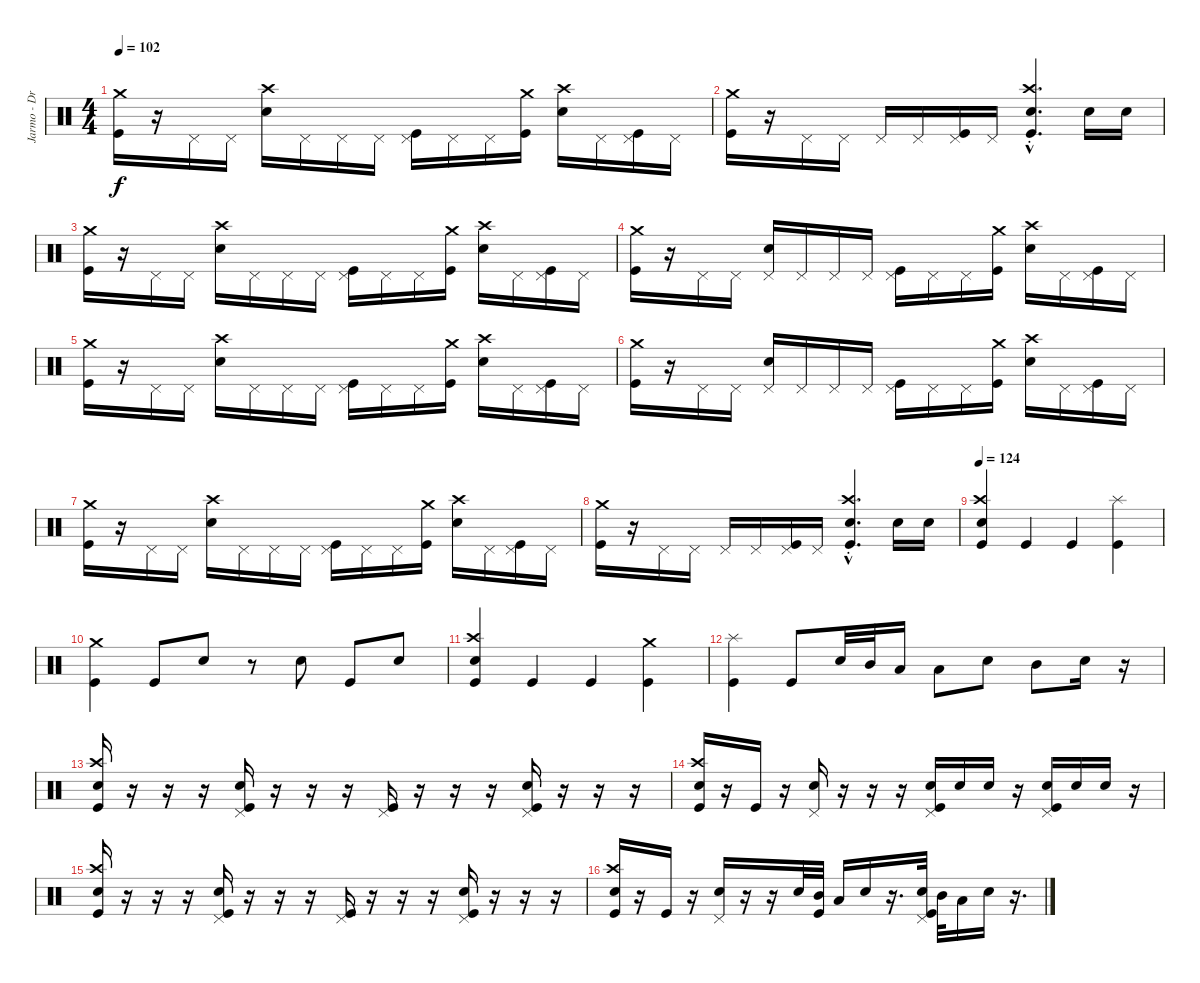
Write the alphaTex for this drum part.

\track ("Jarmo - Drums" "Jarmo - Dr") {instrument percussion}
\staff {score}
\articulation defaults
\ts (4 4)
\tempo 102
\clef neutral
\ks c
("Crash medium (hit)" "Kick (hit)").16{dy f} r.16 "Pedal Hi-Hat (hit)".16 "Pedal Hi-Hat (hit)".16 ("Crash high (hit)" "Electric Snare (hit)").16 "Pedal Hi-Hat (hit)".16 "Pedal Hi-Hat (hit)".16 "Pedal Hi-Hat (hit)".16 ("Pedal Hi-Hat (hit)" "Kick (hit)").16 "Pedal Hi-Hat (hit)".16 "Pedal Hi-Hat (hit)".16 ("Crash medium (hit)" "Kick (hit)").16 ("Crash high (hit)" "Electric Snare (hit)").16 "Pedal Hi-Hat (hit)".16 ("Pedal Hi-Hat (hit)" "Kick (hit)").16 "Pedal Hi-Hat (hit)".16 |
("Crash medium (hit)" "Kick (hit)").16 r.16 "Pedal Hi-Hat (hit)".16 "Pedal Hi-Hat (hit)".16 "Pedal Hi-Hat (hit)".16 "Pedal Hi-Hat (hit)".16 ("Pedal Hi-Hat (hit)" "Kick (hit)").16 "Pedal Hi-Hat (hit)".16 ("Crash high (hit)"{hac st} "Electric Snare (hit)"{hac} "Kick (hit)"{hac}).4{d} "Electric Snare (hit)".16 "Electric Snare (hit)".16 |
("Crash medium (hit)" "Kick (hit)").16 r.16 "Pedal Hi-Hat (hit)".16 "Pedal Hi-Hat (hit)".16 ("Crash high (hit)" "Electric Snare (hit)").16 "Pedal Hi-Hat (hit)".16 "Pedal Hi-Hat (hit)".16 "Pedal Hi-Hat (hit)".16 ("Pedal Hi-Hat (hit)" "Kick (hit)").16 "Pedal Hi-Hat (hit)".16 "Pedal Hi-Hat (hit)".16 ("Crash medium (hit)" "Kick (hit)").16 ("Crash high (hit)" "Electric Snare (hit)").16 "Pedal Hi-Hat (hit)".16 ("Pedal Hi-Hat (hit)" "Kick (hit)").16 "Pedal Hi-Hat (hit)".16 |
("Crash medium (hit)" "Kick (hit)").16 r.16 "Pedal Hi-Hat (hit)".16 "Pedal Hi-Hat (hit)".16 ("Pedal Hi-Hat (hit)" "Electric Snare (hit)").16 "Pedal Hi-Hat (hit)".16 "Pedal Hi-Hat (hit)".16 "Pedal Hi-Hat (hit)".16 ("Pedal Hi-Hat (hit)" "Kick (hit)").16 "Pedal Hi-Hat (hit)".16 "Pedal Hi-Hat (hit)".16 ("Crash medium (hit)" "Kick (hit)").16 ("Crash high (hit)" "Electric Snare (hit)").16 "Pedal Hi-Hat (hit)".16 ("Pedal Hi-Hat (hit)" "Kick (hit)").16 "Pedal Hi-Hat (hit)".16 |
("Crash medium (hit)" "Kick (hit)").16 r.16 "Pedal Hi-Hat (hit)".16 "Pedal Hi-Hat (hit)".16 ("Crash high (hit)" "Electric Snare (hit)").16 "Pedal Hi-Hat (hit)".16 "Pedal Hi-Hat (hit)".16 "Pedal Hi-Hat (hit)".16 ("Pedal Hi-Hat (hit)" "Kick (hit)").16 "Pedal Hi-Hat (hit)".16 "Pedal Hi-Hat (hit)".16 ("Crash medium (hit)" "Kick (hit)").16 ("Crash high (hit)" "Electric Snare (hit)").16 "Pedal Hi-Hat (hit)".16 ("Pedal Hi-Hat (hit)" "Kick (hit)").16 "Pedal Hi-Hat (hit)".16 |
("Crash medium (hit)" "Kick (hit)").16 r.16 "Pedal Hi-Hat (hit)".16 "Pedal Hi-Hat (hit)".16 ("Pedal Hi-Hat (hit)" "Electric Snare (hit)").16 "Pedal Hi-Hat (hit)".16 "Pedal Hi-Hat (hit)".16 "Pedal Hi-Hat (hit)".16 ("Pedal Hi-Hat (hit)" "Kick (hit)").16 "Pedal Hi-Hat (hit)".16 "Pedal Hi-Hat (hit)".16 ("Crash medium (hit)" "Kick (hit)").16 ("Crash high (hit)" "Electric Snare (hit)").16 "Pedal Hi-Hat (hit)".16 ("Pedal Hi-Hat (hit)" "Kick (hit)").16 "Pedal Hi-Hat (hit)".16 |
("Crash medium (hit)" "Kick (hit)").16 r.16 "Pedal Hi-Hat (hit)".16 "Pedal Hi-Hat (hit)".16 ("Crash high (hit)" "Electric Snare (hit)").16 "Pedal Hi-Hat (hit)".16 "Pedal Hi-Hat (hit)".16 "Pedal Hi-Hat (hit)".16 ("Pedal Hi-Hat (hit)" "Kick (hit)").16 "Pedal Hi-Hat (hit)".16 "Pedal Hi-Hat (hit)".16 ("Crash medium (hit)" "Kick (hit)").16 ("Crash high (hit)" "Electric Snare (hit)").16 "Pedal Hi-Hat (hit)".16 ("Pedal Hi-Hat (hit)" "Kick (hit)").16 "Pedal Hi-Hat (hit)".16 |
("Crash medium (hit)" "Kick (hit)").16 r.16 "Pedal Hi-Hat (hit)".16 "Pedal Hi-Hat (hit)".16 "Pedal Hi-Hat (hit)".16 "Pedal Hi-Hat (hit)".16 ("Pedal Hi-Hat (hit)" "Kick (hit)").16 "Pedal Hi-Hat (hit)".16 ("Crash high (hit)"{hac st} "Electric Snare (hit)"{hac} "Kick (hit)"{hac}).4{d} "Electric Snare (hit)".16 "Electric Snare (hit)".16 |
\tempo 124
("Crash high (hit)" "Electric Snare (hit)" "Kick (hit)").4 "Kick (hit)".4 "Kick (hit)".4 ("Kick (hit)" "Splash (hit)").4 |
("Kick (hit)" "Crash medium (hit)").4 "Kick (hit)".8 "Electric Snare (hit)".8 r.8 "Electric Snare (hit)".8 "Kick (hit)".8 "Electric Snare (hit)".8 |
("Crash high (hit)" "Electric Snare (hit)" "Kick (hit)").4 "Kick (hit)".4 "Kick (hit)".4 ("Kick (hit)" "Crash medium (hit)").4 |
("Kick (hit)" "Splash (hit)").4 "Kick (hit)".8 "Electric Snare (hit)".32 "Mid Tom (hit)".32 "Low Tom (hit)".16 "Low Tom (hit)".8 "Electric Snare (hit)".8 "Mid Tom (hit)".8 "Electric Snare (hit)".16 r.16 |
("Kick (hit)" "Electric Snare (hit)" "Crash high (hit)").16 r.16 r.16 r.16 ("Kick (hit)" "Electric Snare (hit)" "Pedal Hi-Hat (hit)").16 r.16 r.16 r.16 ("Kick (hit)" "Pedal Hi-Hat (hit)").16 r.16 r.16 r.16 ("Kick (hit)" "Electric Snare (hit)" "Pedal Hi-Hat (hit)").16 r.16 r.16 r.16 |
("Kick (hit)" "Electric Snare (hit)" "Crash high (hit)").16 r.16 "Kick (hit)".16 r.16 ("Electric Snare (hit)" "Pedal Hi-Hat (hit)").16 r.16 r.16 r.16 ("Kick (hit)" "Electric Snare (hit)" "Pedal Hi-Hat (hit)").16 "Electric Snare (hit)".16 "Electric Snare (hit)".16 r.16 ("Kick (hit)" "Electric Snare (hit)" "Pedal Hi-Hat (hit)").16 "Electric Snare (hit)".16 "Electric Snare (hit)".16 r.16 |
("Kick (hit)" "Electric Snare (hit)" "Crash high (hit)").16 r.16 r.16 r.16 ("Kick (hit)" "Electric Snare (hit)" "Pedal Hi-Hat (hit)").16 r.16 r.16 r.16 ("Kick (hit)" "Pedal Hi-Hat (hit)").16 r.16 r.16 r.16 ("Kick (hit)" "Electric Snare (hit)" "Pedal Hi-Hat (hit)").16 r.16 r.16 r.16 |
("Kick (hit)" "Electric Snare (hit)" "Crash high (hit)").16 r.16 "Kick (hit)".16 r.16 ("Electric Snare (hit)" "Pedal Hi-Hat (hit)").16 r.16 r.16 "Electric Snare (hit)".32 ("Kick (hit)" "Mid Tom (hit)").32 "Low Tom (hit)".16 "Electric Snare (hit)".16 r.16{d} ("Kick (hit)" "Electric Snare (hit)" "Pedal Hi-Hat (hit)").32 "Mid Tom (hit)".32 "Low Tom (hit)".16 "Electric Snare (hit)".16 r.16{d}
